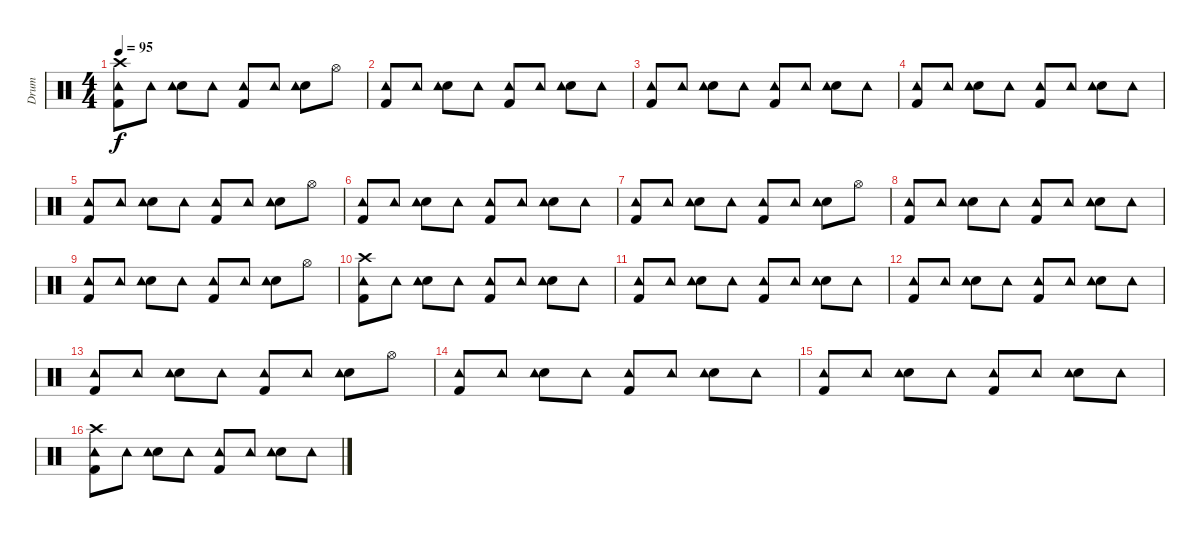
\track ("Drum" "Drum") {instrument percussion}
\staff {score}
\articulation defaults
\ts (4 4)
\tempo 95
\clef neutral
\ks c
("Kick (hit) 2" "Tambourine (hit)" "Crash high (hit)").8{dy f} "Tambourine (hit)".8 ("Electric Snare (hit)" "Tambourine (hit)").8 "Tambourine (hit)".8 ("Kick (hit) 2" "Tambourine (hit)").8 "Tambourine (hit)".8 ("Electric Snare (hit)" "Tambourine (hit)").8 "Hi-Hat (open)".8 |
("Kick (hit) 2" "Tambourine (hit)").8 "Tambourine (hit)".8 ("Electric Snare (hit)" "Tambourine (hit)").8 "Tambourine (hit)".8 ("Kick (hit) 2" "Tambourine (hit)").8 "Tambourine (hit)".8 ("Electric Snare (hit)" "Tambourine (hit)").8 "Tambourine (hit)".8 |
("Kick (hit) 2" "Tambourine (hit)").8 "Tambourine (hit)".8 ("Electric Snare (hit)" "Tambourine (hit)").8 "Tambourine (hit)".8 ("Kick (hit) 2" "Tambourine (hit)").8 "Tambourine (hit)".8 ("Electric Snare (hit)" "Tambourine (hit)").8 "Tambourine (hit)".8 |
("Kick (hit) 2" "Tambourine (hit)").8 "Tambourine (hit)".8 ("Electric Snare (hit)" "Tambourine (hit)").8 "Tambourine (hit)".8 ("Kick (hit) 2" "Tambourine (hit)").8 "Tambourine (hit)".8 ("Electric Snare (hit)" "Tambourine (hit)").8 "Tambourine (hit)".8 |
("Kick (hit) 2" "Tambourine (hit)").8 "Tambourine (hit)".8 ("Electric Snare (hit)" "Tambourine (hit)").8 "Tambourine (hit)".8 ("Kick (hit) 2" "Tambourine (hit)").8 "Tambourine (hit)".8 ("Electric Snare (hit)" "Tambourine (hit)").8 "Hi-Hat (open)".8 |
("Kick (hit) 2" "Tambourine (hit)").8 "Tambourine (hit)".8 ("Electric Snare (hit)" "Tambourine (hit)").8 "Tambourine (hit)".8 ("Kick (hit) 2" "Tambourine (hit)").8 "Tambourine (hit)".8 ("Electric Snare (hit)" "Tambourine (hit)").8 "Tambourine (hit)".8 |
("Kick (hit) 2" "Tambourine (hit)").8 "Tambourine (hit)".8 ("Electric Snare (hit)" "Tambourine (hit)").8 "Tambourine (hit)".8 ("Kick (hit) 2" "Tambourine (hit)").8 "Tambourine (hit)".8 ("Electric Snare (hit)" "Tambourine (hit)").8 "Hi-Hat (open)".8 |
("Kick (hit) 2" "Tambourine (hit)").8 "Tambourine (hit)".8 ("Electric Snare (hit)" "Tambourine (hit)").8 "Tambourine (hit)".8 ("Kick (hit) 2" "Tambourine (hit)").8 "Tambourine (hit)".8 ("Electric Snare (hit)" "Tambourine (hit)").8 "Tambourine (hit)".8 |
("Kick (hit) 2" "Tambourine (hit)").8 "Tambourine (hit)".8 ("Electric Snare (hit)" "Tambourine (hit)").8 "Tambourine (hit)".8 ("Kick (hit) 2" "Tambourine (hit)").8 "Tambourine (hit)".8 ("Electric Snare (hit)" "Tambourine (hit)").8 "Hi-Hat (open)".8 |
("Kick (hit) 2" "Tambourine (hit)" "Crash high (hit)").8 "Tambourine (hit)".8 ("Electric Snare (hit)" "Tambourine (hit)").8 "Tambourine (hit)".8 ("Kick (hit) 2" "Tambourine (hit)").8 "Tambourine (hit)".8 ("Electric Snare (hit)" "Tambourine (hit)").8 "Tambourine (hit)".8 |
("Kick (hit) 2" "Tambourine (hit)").8 "Tambourine (hit)".8 ("Electric Snare (hit)" "Tambourine (hit)").8 "Tambourine (hit)".8 ("Kick (hit) 2" "Tambourine (hit)").8 "Tambourine (hit)".8 ("Electric Snare (hit)" "Tambourine (hit)").8 "Tambourine (hit)".8 |
("Kick (hit) 2" "Tambourine (hit)").8 "Tambourine (hit)".8 ("Electric Snare (hit)" "Tambourine (hit)").8 "Tambourine (hit)".8 ("Kick (hit) 2" "Tambourine (hit)").8 "Tambourine (hit)".8 ("Electric Snare (hit)" "Tambourine (hit)").8 "Tambourine (hit)".8 |
("Kick (hit) 2" "Tambourine (hit)").8 "Tambourine (hit)".8 ("Electric Snare (hit)" "Tambourine (hit)").8 "Tambourine (hit)".8 ("Kick (hit) 2" "Tambourine (hit)").8 "Tambourine (hit)".8 ("Electric Snare (hit)" "Tambourine (hit)").8 "Hi-Hat (open)".8 |
("Kick (hit) 2" "Tambourine (hit)").8 "Tambourine (hit)".8 ("Electric Snare (hit)" "Tambourine (hit)").8 "Tambourine (hit)".8 ("Kick (hit) 2" "Tambourine (hit)").8 "Tambourine (hit)".8 ("Electric Snare (hit)" "Tambourine (hit)").8 "Tambourine (hit)".8 |
("Kick (hit) 2" "Tambourine (hit)").8 "Tambourine (hit)".8 ("Electric Snare (hit)" "Tambourine (hit)").8 "Tambourine (hit)".8 ("Kick (hit) 2" "Tambourine (hit)").8 "Tambourine (hit)".8 ("Electric Snare (hit)" "Tambourine (hit)").8 "Tambourine (hit)".8 |
("Kick (hit) 2" "Tambourine (hit)" "Crash high (hit)").8 "Tambourine (hit)".8 ("Electric Snare (hit)" "Tambourine (hit)").8 "Tambourine (hit)".8 ("Kick (hit) 2" "Tambourine (hit)").8 "Tambourine (hit)".8 ("Electric Snare (hit)" "Tambourine (hit)").8 "Tambourine (hit)".8
